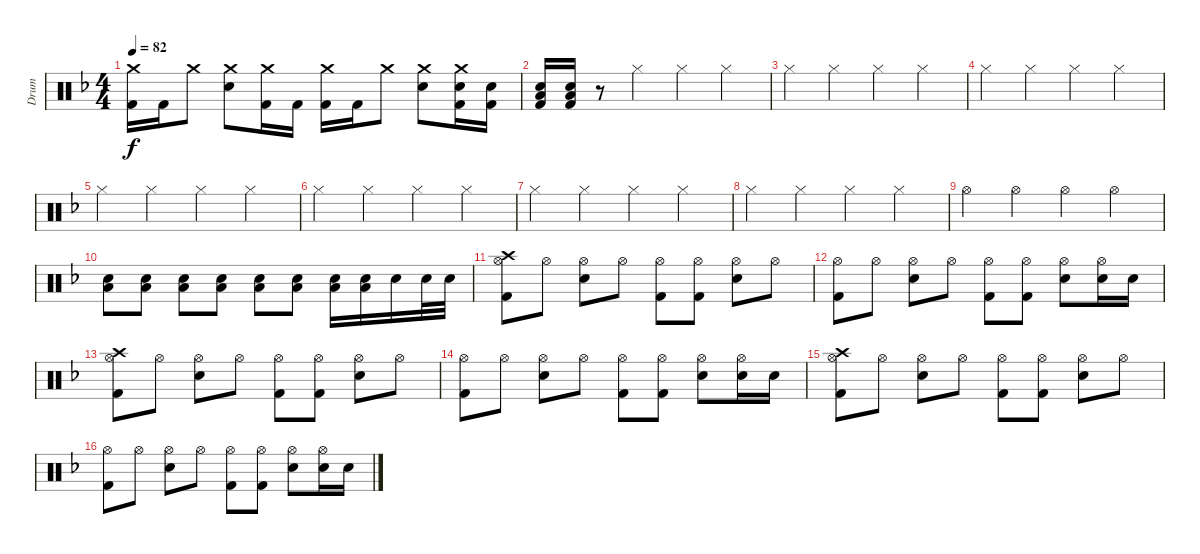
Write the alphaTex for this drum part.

\track ("Drum" "Drum") {instrument percussion}
\staff {score}
\articulation defaults
\ts (4 4)
\tempo 82
\clef neutral
\ks f
("Crash medium (hit)" "Kick (hit) 2").16{dy f} "Kick (hit) 2".16 "Crash medium (hit)".8 ("Crash medium (hit)" "Electric Snare (hit)").8 ("Crash medium (hit)" "Kick (hit) 2").16 "Kick (hit) 2".16 ("Crash medium (hit)" "Kick (hit) 2").16 "Kick (hit) 2".16 "Crash medium (hit)".8 ("Crash medium (hit)" "Electric Snare (hit)").8 ("Crash medium (hit)" "Electric Snare (hit)" "Kick (hit) 2").16 ("Electric Snare (hit)" "Kick (hit) 2").16 |
("Electric Snare (hit)" "Low Floor Tom (hit)" "Kick (hit) 2").16 ("Electric Snare (hit)" "Low Floor Tom (hit)" "Kick (hit) 2").16 r.8 "Hi-Hat (closed)".4 "Hi-Hat (closed)".4 "Hi-Hat (closed)".4 |
"Hi-Hat (closed)".4 "Hi-Hat (closed)".4 "Hi-Hat (closed)".4 "Hi-Hat (closed)".4 |
"Hi-Hat (closed)".4 "Hi-Hat (closed)".4 "Hi-Hat (closed)".4 "Hi-Hat (closed)".4 |
"Hi-Hat (closed)".4 "Hi-Hat (closed)".4 "Hi-Hat (closed)".4 "Hi-Hat (closed)".4 |
"Hi-Hat (closed)".4 "Hi-Hat (closed)".4 "Hi-Hat (closed)".4 "Hi-Hat (closed)".4 |
"Hi-Hat (closed)".4 "Hi-Hat (closed)".4 "Hi-Hat (closed)".4 "Hi-Hat (closed)".4 |
"Hi-Hat (closed)".4 "Hi-Hat (closed)".4 "Hi-Hat (closed)".4 "Hi-Hat (closed)".4 |
"Hi-Hat (open)".4 "Hi-Hat (open)".4 "Hi-Hat (open)".4 "Hi-Hat (open)".4 |
("Low Floor Tom (hit)" "Electric Snare (hit)").8{volume 8} ("Low Floor Tom (hit)" "Electric Snare (hit)").8 ("Low Floor Tom (hit)" "Electric Snare (hit)").8{volume 10} ("Low Floor Tom (hit)" "Electric Snare (hit)").8 ("Low Floor Tom (hit)" "Electric Snare (hit)").8{volume 11} ("Low Floor Tom (hit)" "Electric Snare (hit)").8 ("Low Floor Tom (hit)" "Electric Snare (hit)").16{volume 13} ("Low Floor Tom (hit)" "Electric Snare (hit)").16 "Electric Snare (hit)".16 "Electric Snare (hit)".32 "Electric Snare (hit)".32 |
("Crash high (hit)" "Hi-Hat (open)" "Kick (hit) 2").8 "Hi-Hat (open)".8 ("Hi-Hat (open)" "Electric Snare (hit)").8 "Hi-Hat (open)".8 ("Hi-Hat (open)" "Kick (hit) 2").8 ("Hi-Hat (open)" "Kick (hit) 2").8 ("Hi-Hat (open)" "Electric Snare (hit)").8 "Hi-Hat (open)".8 |
("Hi-Hat (open)" "Kick (hit) 2").8 "Hi-Hat (open)".8 ("Hi-Hat (open)" "Electric Snare (hit)").8 "Hi-Hat (open)".8 ("Hi-Hat (open)" "Kick (hit) 2").8 ("Hi-Hat (open)" "Kick (hit) 2").8 ("Hi-Hat (open)" "Electric Snare (hit)").8 ("Hi-Hat (open)" "Electric Snare (hit)").16 "Electric Snare (hit)".16 |
("Crash high (hit)" "Hi-Hat (open)" "Kick (hit) 2").8 "Hi-Hat (open)".8 ("Hi-Hat (open)" "Electric Snare (hit)").8 "Hi-Hat (open)".8 ("Hi-Hat (open)" "Kick (hit) 2").8 ("Hi-Hat (open)" "Kick (hit) 2").8 ("Hi-Hat (open)" "Electric Snare (hit)").8 "Hi-Hat (open)".8 |
("Hi-Hat (open)" "Kick (hit) 2").8 "Hi-Hat (open)".8 ("Hi-Hat (open)" "Electric Snare (hit)").8 "Hi-Hat (open)".8 ("Hi-Hat (open)" "Kick (hit) 2").8 ("Hi-Hat (open)" "Kick (hit) 2").8 ("Hi-Hat (open)" "Electric Snare (hit)").8 ("Hi-Hat (open)" "Electric Snare (hit)").16 "Electric Snare (hit)".16 |
("Crash high (hit)" "Hi-Hat (open)" "Kick (hit) 2").8 "Hi-Hat (open)".8 ("Hi-Hat (open)" "Electric Snare (hit)").8 "Hi-Hat (open)".8 ("Hi-Hat (open)" "Kick (hit) 2").8 ("Hi-Hat (open)" "Kick (hit) 2").8 ("Hi-Hat (open)" "Electric Snare (hit)").8 "Hi-Hat (open)".8 |
("Hi-Hat (open)" "Kick (hit) 2").8 "Hi-Hat (open)".8 ("Hi-Hat (open)" "Electric Snare (hit)").8 "Hi-Hat (open)".8 ("Hi-Hat (open)" "Kick (hit) 2").8 ("Hi-Hat (open)" "Kick (hit) 2").8 ("Hi-Hat (open)" "Electric Snare (hit)").8 ("Hi-Hat (open)" "Electric Snare (hit)").16 "Electric Snare (hit)".16
